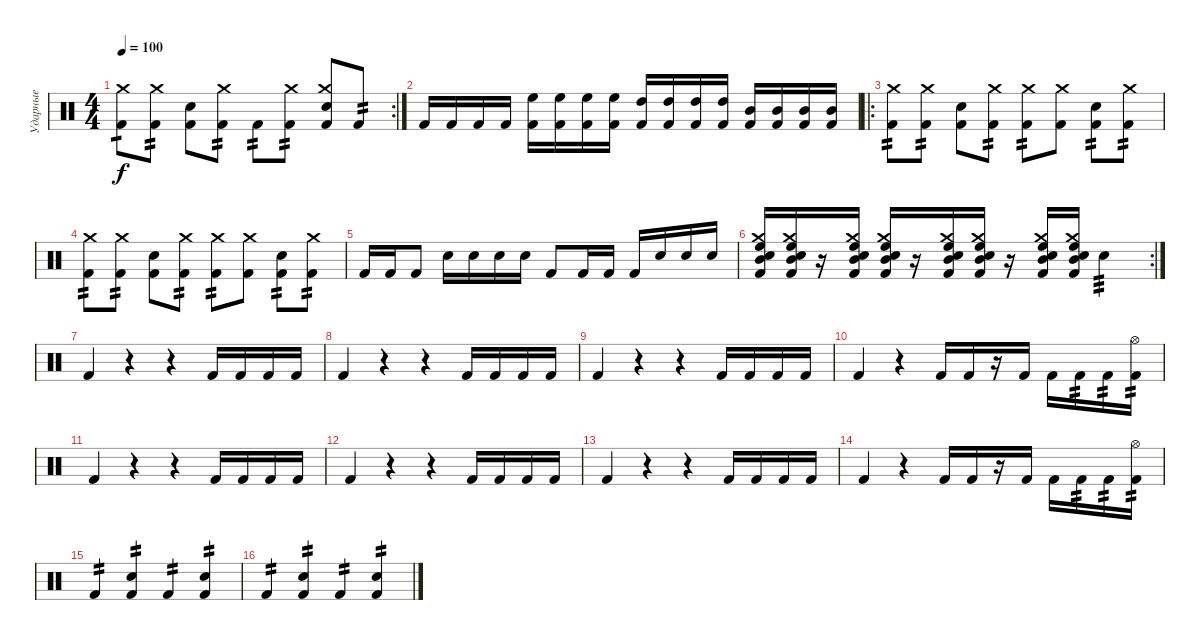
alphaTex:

\track ("Ударные" "Ударные") {instrument percussion}
\staff {score}
\articulation defaults
\rc 2
\ts (4 4)
\tempo 100
\clef neutral
\ks c
("Kick (hit) 2" "Crash medium (hit)").8{tp 1 dy f} ("Kick (hit) 2" "Crash medium (hit)").8{tp 2} ("Kick (hit) 2" "Snare (hit) 2").8 ("Kick (hit) 2" "Crash medium (hit)").8{tp 2} "Kick (hit) 2".8{tp 2} ("Kick (hit) 2" "Crash medium (hit)").8{tp 2} ("Kick (hit) 2" "Snare (hit) 2" "Crash medium (hit)").8 "Kick (hit) 2".8{tp 2} |
"Kick (hit) 2".16 "Kick (hit) 2".16 "Kick (hit) 2".16 "Kick (hit) 2".16 ("Kick (hit) 2" "High Floor Tom (hit)").16 ("Kick (hit) 2" "High Floor Tom (hit)").16 ("Kick (hit) 2" "High Floor Tom (hit)").16 ("Kick (hit) 2" "High Floor Tom (hit)").16 ("Kick (hit) 2" "High Tom (hit)").16 ("Kick (hit) 2" "High Tom (hit)").16 ("Kick (hit) 2" "High Tom (hit)").16 ("Kick (hit) 2" "High Tom (hit)").16 ("Kick (hit) 2" "Mid Tom (hit)").16 ("Kick (hit) 2" "Mid Tom (hit)").16 ("Kick (hit) 2" "Mid Tom (hit)").16 ("Kick (hit) 2" "Mid Tom (hit)").16 |
\ro
("Kick (hit) 2" "Crash medium (hit)").8{tp 2} ("Kick (hit) 2" "Crash medium (hit)").8{tp 2} ("Kick (hit) 2" "Snare (hit) 2").8 ("Kick (hit) 2" "Crash medium (hit)").8{tp 2} ("Kick (hit) 2" "Crash medium (hit)").8{tp 2} ("Kick (hit) 2" "Crash medium (hit)").8 ("Kick (hit) 2" "Snare (hit) 2").8{tp 2} ("Kick (hit) 2" "Crash medium (hit)").8{tp 2} |
("Kick (hit) 2" "Crash medium (hit)").8{tp 2} ("Kick (hit) 2" "Crash medium (hit)").8{tp 2} ("Kick (hit) 2" "Snare (hit) 2").8 ("Kick (hit) 2" "Crash medium (hit)").8{tp 2} ("Kick (hit) 2" "Crash medium (hit)").8{tp 2} ("Kick (hit) 2" "Crash medium (hit)").8 ("Kick (hit) 2" "Snare (hit) 2").8{tp 2} ("Kick (hit) 2" "Crash medium (hit)").8{tp 2} |
"Kick (hit) 2".16 "Kick (hit) 2".16 "Kick (hit) 2".8 "Snare (hit) 2".16 "Snare (hit) 2".16 "Snare (hit) 2".16 "Snare (hit) 2".16 "Kick (hit) 2".8 "Kick (hit) 2".16 "Kick (hit) 2".16 "Kick (hit) 2".16 "Snare (hit) 2".16 "Snare (hit) 2".16 "Snare (hit) 2".16 |
\rc 2
("Kick (hit) 2" "Snare (hit) 2" "High Floor Tom (hit)" "Mid Tom (hit)" "Crash medium (hit)").16 ("Kick (hit) 2" "Snare (hit) 2" "High Floor Tom (hit)" "Mid Tom (hit)" "Crash medium (hit)").16 r.16 ("Kick (hit) 2" "Snare (hit) 2" "High Floor Tom (hit)" "Mid Tom (hit)" "Crash medium (hit)").16 ("Kick (hit) 2" "Snare (hit) 2" "High Floor Tom (hit)" "Mid Tom (hit)" "Crash medium (hit)").16 r.16 ("Kick (hit) 2" "Snare (hit) 2" "High Floor Tom (hit)" "Mid Tom (hit)" "Crash medium (hit)").16 ("Kick (hit) 2" "Snare (hit) 2" "High Floor Tom (hit)" "Mid Tom (hit)" "Crash medium (hit)").16 r.16 ("Kick (hit) 2" "Snare (hit) 2" "High Floor Tom (hit)" "Mid Tom (hit)" "Crash medium (hit)").16 ("Kick (hit) 2" "Snare (hit) 2" "High Floor Tom (hit)" "Mid Tom (hit)" "Crash medium (hit)").16 "Snare (hit) 2".4{tp 3} |
"Kick (hit) 2".4 r.4 r.4 "Kick (hit) 2".16 "Kick (hit) 2".16 "Kick (hit) 2".16 "Kick (hit) 2".16 |
"Kick (hit) 2".4 r.4 r.4 "Kick (hit) 2".16 "Kick (hit) 2".16 "Kick (hit) 2".16 "Kick (hit) 2".16 |
"Kick (hit) 2".4 r.4 r.4 "Kick (hit) 2".16 "Kick (hit) 2".16 "Kick (hit) 2".16 "Kick (hit) 2".16 |
"Kick (hit) 2".4 r.4 "Kick (hit) 2".16 "Kick (hit) 2".16 r.16 "Kick (hit) 2".16 "Kick (hit) 2".16 "Kick (hit) 2".16{tp 2} "Kick (hit) 2".16{tp 2} ("Hi-Hat (open)" "Kick (hit) 2").16{tp 2} |
"Kick (hit) 2".4 r.4 r.4 "Kick (hit) 2".16 "Kick (hit) 2".16 "Kick (hit) 2".16 "Kick (hit) 2".16 |
"Kick (hit) 2".4 r.4 r.4 "Kick (hit) 2".16 "Kick (hit) 2".16 "Kick (hit) 2".16 "Kick (hit) 2".16 |
"Kick (hit) 2".4 r.4 r.4 "Kick (hit) 2".16 "Kick (hit) 2".16 "Kick (hit) 2".16 "Kick (hit) 2".16 |
"Kick (hit) 2".4 r.4 "Kick (hit) 2".16 "Kick (hit) 2".16 r.16 "Kick (hit) 2".16 "Kick (hit) 2".16 "Kick (hit) 2".16{tp 2} "Kick (hit) 2".16{tp 2} ("Hi-Hat (open)" "Kick (hit) 2").16{tp 2} |
"Kick (hit) 2".4{tp 2} ("Kick (hit) 2" "Snare (hit) 2").4{tp 2} "Kick (hit) 2".4{tp 2} ("Kick (hit) 2" "Snare (hit) 2").4{tp 2} |
"Kick (hit) 2".4{tp 2} ("Kick (hit) 2" "Snare (hit) 2").4{tp 2} "Kick (hit) 2".4{tp 2} ("Kick (hit) 2" "Snare (hit) 2").4{tp 2}
